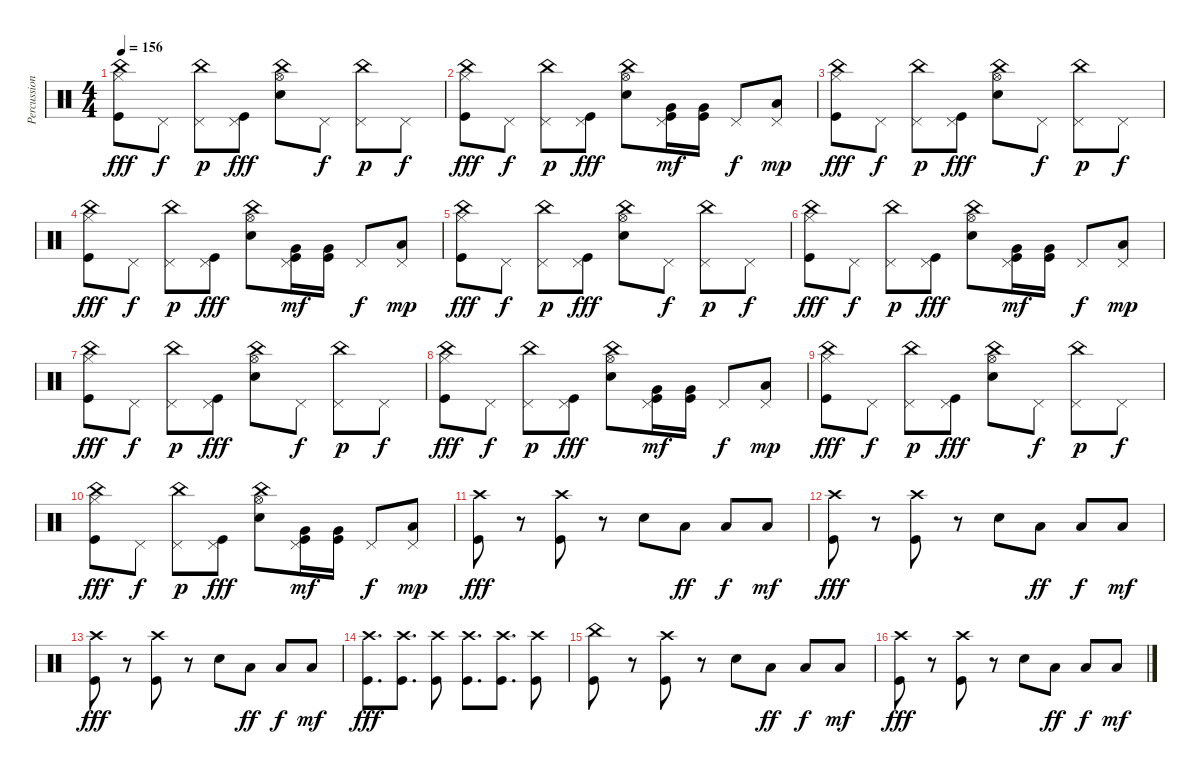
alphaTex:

\track ("Percussion" "Percussion") {instrument percussion}
\staff {score}
\articulation defaults
\ts (4 4)
\tempo 156
\clef neutral
\ks c
("China (hit)" "Hi-Hat (closed)" "Kick (hit)").8{dy fff} "Pedal Hi-Hat (hit)".8{dy f} ("China (hit)" "Pedal Hi-Hat (hit)").8{dy p} ("Pedal Hi-Hat (hit)" "Kick (hit)").8{dy fff} ("China (hit)" "Hi-Hat (open)" "Snare (hit) 2").8 "Pedal Hi-Hat (hit)".8{dy f} ("China (hit)" "Pedal Hi-Hat (hit)").8{dy p} "Pedal Hi-Hat (hit)".8{dy f} |
("China (hit)" "Hi-Hat (closed)" "Kick (hit)").8{dy fff} "Pedal Hi-Hat (hit)".8{dy f} ("China (hit)" "Pedal Hi-Hat (hit)").8{dy p} ("Pedal Hi-Hat (hit)" "Kick (hit)").8{dy fff} ("China (hit)" "Hi-Hat (open)" "Snare (hit) 2").8 ("Very Low Tom (hit)" "Pedal Hi-Hat (hit)" "Kick (hit)").16{dy mf} ("Very Low Tom (hit)" "Kick (hit)").16 "Pedal Hi-Hat (hit)".8{dy f} ("Low Tom (hit)" "Pedal Hi-Hat (hit)").8{dy mp} |
("China (hit)" "Hi-Hat (closed)" "Kick (hit)").8{dy fff} "Pedal Hi-Hat (hit)".8{dy f} ("China (hit)" "Pedal Hi-Hat (hit)").8{dy p} ("Pedal Hi-Hat (hit)" "Kick (hit)").8{dy fff} ("China (hit)" "Hi-Hat (open)" "Snare (hit) 2").8 "Pedal Hi-Hat (hit)".8{dy f} ("China (hit)" "Pedal Hi-Hat (hit)").8{dy p} "Pedal Hi-Hat (hit)".8{dy f} |
("China (hit)" "Hi-Hat (closed)" "Kick (hit)").8{dy fff} "Pedal Hi-Hat (hit)".8{dy f} ("China (hit)" "Pedal Hi-Hat (hit)").8{dy p} ("Pedal Hi-Hat (hit)" "Kick (hit)").8{dy fff} ("China (hit)" "Hi-Hat (open)" "Snare (hit) 2").8 ("Very Low Tom (hit)" "Pedal Hi-Hat (hit)" "Kick (hit)").16{dy mf} ("Very Low Tom (hit)" "Kick (hit)").16 "Pedal Hi-Hat (hit)".8{dy f} ("Low Tom (hit)" "Pedal Hi-Hat (hit)").8{dy mp} |
("China (hit)" "Hi-Hat (closed)" "Kick (hit)").8{dy fff} "Pedal Hi-Hat (hit)".8{dy f} ("China (hit)" "Pedal Hi-Hat (hit)").8{dy p} ("Pedal Hi-Hat (hit)" "Kick (hit)").8{dy fff} ("China (hit)" "Hi-Hat (open)" "Snare (hit) 2").8 "Pedal Hi-Hat (hit)".8{dy f} ("China (hit)" "Pedal Hi-Hat (hit)").8{dy p} "Pedal Hi-Hat (hit)".8{dy f} |
("China (hit)" "Hi-Hat (closed)" "Kick (hit)").8{dy fff} "Pedal Hi-Hat (hit)".8{dy f} ("China (hit)" "Pedal Hi-Hat (hit)").8{dy p} ("Pedal Hi-Hat (hit)" "Kick (hit)").8{dy fff} ("China (hit)" "Hi-Hat (open)" "Snare (hit) 2").8 ("Very Low Tom (hit)" "Pedal Hi-Hat (hit)" "Kick (hit)").16{dy mf} ("Very Low Tom (hit)" "Kick (hit)").16 "Pedal Hi-Hat (hit)".8{dy f} ("Low Tom (hit)" "Pedal Hi-Hat (hit)").8{dy mp} |
("China (hit)" "Hi-Hat (closed)" "Kick (hit)").8{dy fff} "Pedal Hi-Hat (hit)".8{dy f} ("China (hit)" "Pedal Hi-Hat (hit)").8{dy p} ("Pedal Hi-Hat (hit)" "Kick (hit)").8{dy fff} ("China (hit)" "Hi-Hat (open)" "Snare (hit) 2").8 "Pedal Hi-Hat (hit)".8{dy f} ("China (hit)" "Pedal Hi-Hat (hit)").8{dy p} "Pedal Hi-Hat (hit)".8{dy f} |
("China (hit)" "Hi-Hat (closed)" "Kick (hit)").8{dy fff} "Pedal Hi-Hat (hit)".8{dy f} ("China (hit)" "Pedal Hi-Hat (hit)").8{dy p} ("Pedal Hi-Hat (hit)" "Kick (hit)").8{dy fff} ("China (hit)" "Hi-Hat (open)" "Snare (hit) 2").8 ("Very Low Tom (hit)" "Pedal Hi-Hat (hit)" "Kick (hit)").16{dy mf} ("Very Low Tom (hit)" "Kick (hit)").16 "Pedal Hi-Hat (hit)".8{dy f} ("Low Tom (hit)" "Pedal Hi-Hat (hit)").8{dy mp} |
("China (hit)" "Hi-Hat (closed)" "Kick (hit)").8{dy fff} "Pedal Hi-Hat (hit)".8{dy f} ("China (hit)" "Pedal Hi-Hat (hit)").8{dy p} ("Pedal Hi-Hat (hit)" "Kick (hit)").8{dy fff} ("China (hit)" "Hi-Hat (open)" "Snare (hit) 2").8 "Pedal Hi-Hat (hit)".8{dy f} ("China (hit)" "Pedal Hi-Hat (hit)").8{dy p} "Pedal Hi-Hat (hit)".8{dy f} |
("China (hit)" "Hi-Hat (closed)" "Kick (hit)").8{dy fff} "Pedal Hi-Hat (hit)".8{dy f} ("China (hit)" "Pedal Hi-Hat (hit)").8{dy p} ("Pedal Hi-Hat (hit)" "Kick (hit)").8{dy fff} ("China (hit)" "Hi-Hat (open)" "Snare (hit) 2").8 ("Very Low Tom (hit)" "Pedal Hi-Hat (hit)" "Kick (hit)").16{dy mf} ("Very Low Tom (hit)" "Kick (hit)").16 "Pedal Hi-Hat (hit)".8{dy f} ("Low Tom (hit)" "Pedal Hi-Hat (hit)").8{dy mp} |
("Crash high (hit)" "Kick (hit)").8{dy fff} r.8 ("Crash high (hit)" "Kick (hit)").8 r.8 "Snare (hit) 2".8 "Low Tom (hit)".8{dy ff} "Low Tom (hit)".8{dy f} "Low Tom (hit)".8{dy mf} |
("Crash high (hit)" "Kick (hit)").8{dy fff} r.8 ("Crash high (hit)" "Kick (hit)").8 r.8 "Snare (hit) 2".8 "Low Tom (hit)".8{dy ff} "Low Tom (hit)".8{dy f} "Low Tom (hit)".8{dy mf} |
("Crash high (hit)" "Kick (hit)").8{dy fff} r.8 ("Crash high (hit)" "Kick (hit)").8 r.8 "Snare (hit) 2".8 "Low Tom (hit)".8{dy ff} "Low Tom (hit)".8{dy f} "Low Tom (hit)".8{dy mf} |
("Crash high (hit)" "Kick (hit)").8{d dy fff} ("Crash high (hit)" "Kick (hit)").8{d} ("Crash high (hit)" "Kick (hit)").8 ("Crash high (hit)" "Kick (hit)").8{d} ("Crash high (hit)" "Kick (hit)").8{d} ("Crash high (hit)" "Kick (hit)").8 |
("China (hit)" "Kick (hit)").8 r.8 ("Crash high (hit)" "Kick (hit)").8 r.8 "Snare (hit) 2".8 "Low Tom (hit)".8{dy ff} "Low Tom (hit)".8{dy f} "Low Tom (hit)".8{dy mf} |
("Crash high (hit)" "Kick (hit)").8{dy fff} r.8 ("Crash high (hit)" "Kick (hit)").8 r.8 "Snare (hit) 2".8 "Low Tom (hit)".8{dy ff} "Low Tom (hit)".8{dy f} "Low Tom (hit)".8{dy mf}
